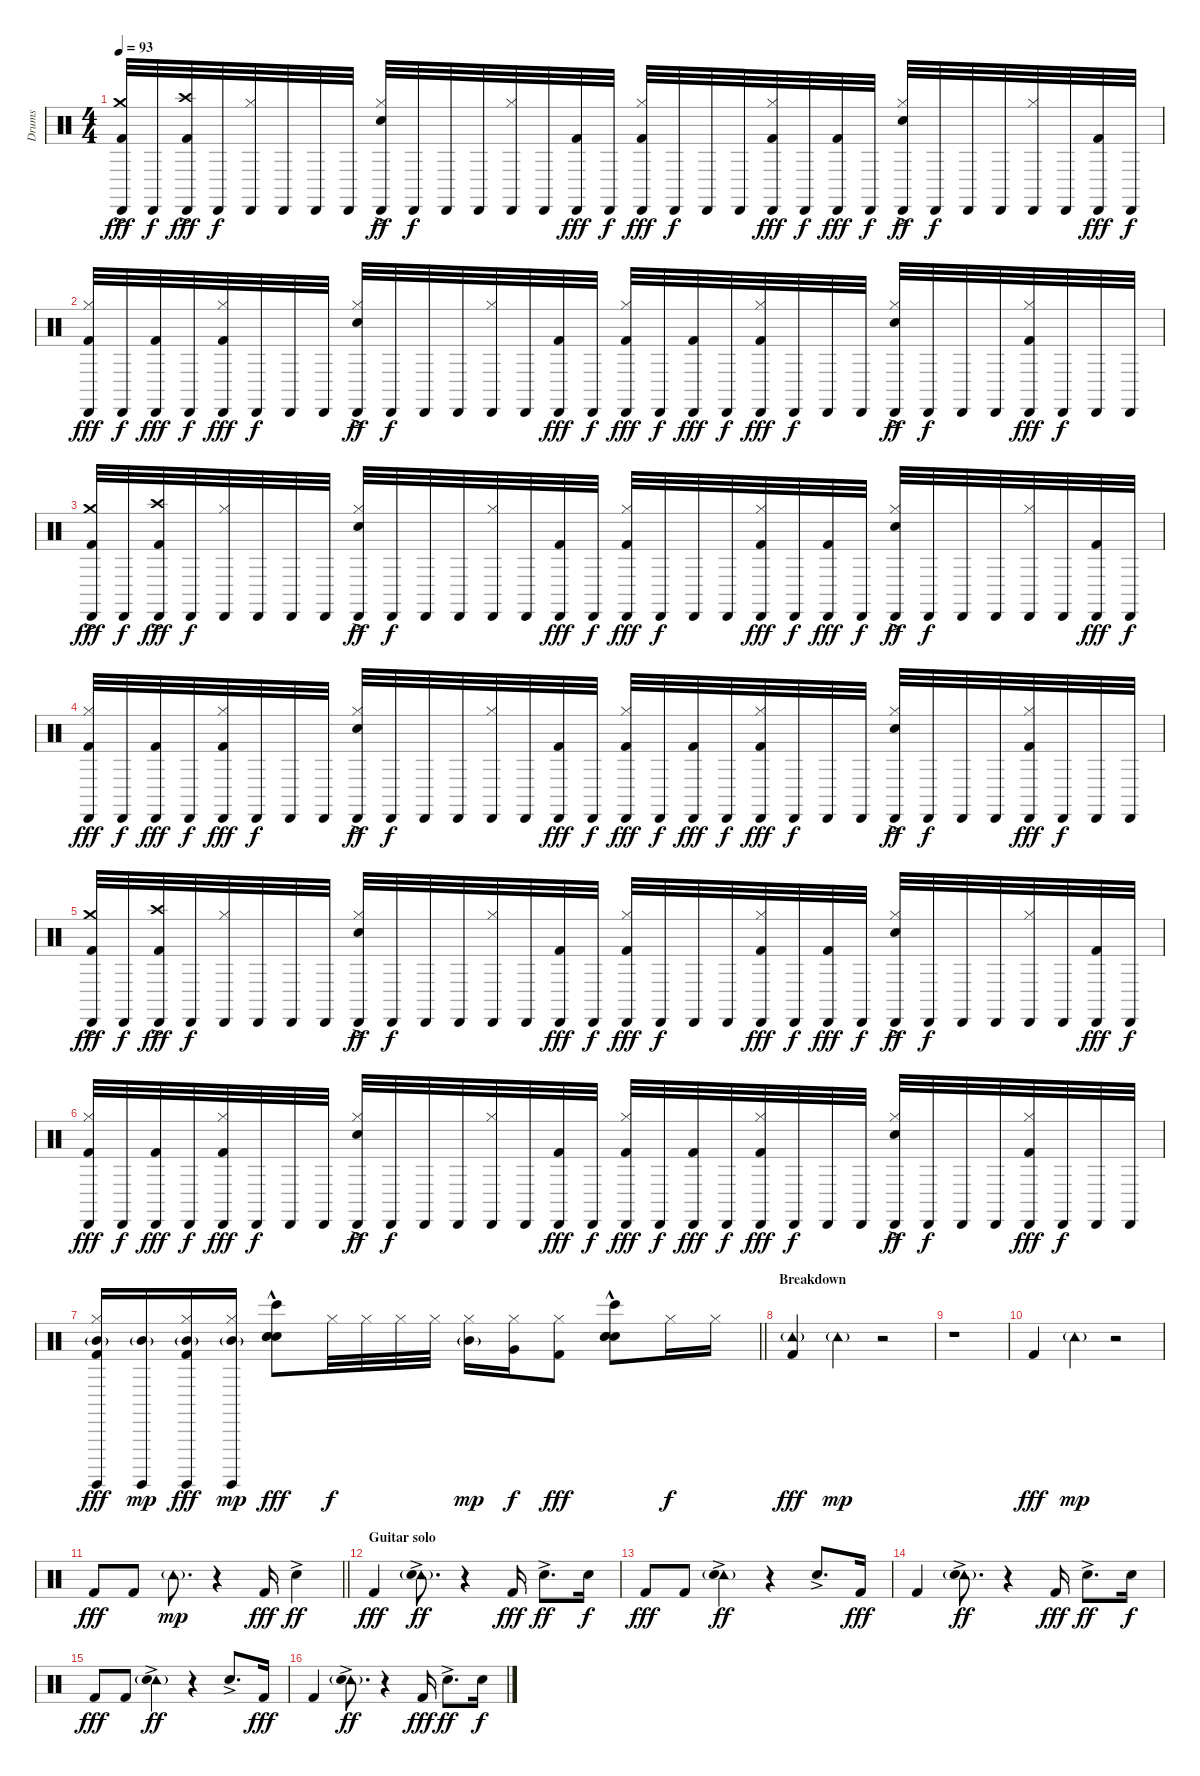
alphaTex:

\track ("Drums" "Drums") {instrument percussion}
\staff {score}
\articulation defaults
\ts (4 4)
\tempo 93
\clef neutral
\ks c
("Crash medium (hit)"{ac} "Cabasa (hit)" "Kick (hit) 2").32{dy fff} "Cabasa (hit)".32{dy f} ("Crash high (hit)"{ac} "Cabasa (hit)" "Kick (hit) 2").32{dy fff} "Cabasa (hit)".32{dy f} ("Cabasa (hit)" "Hi-Hat (closed)").32 "Cabasa (hit)".32 "Cabasa (hit)".32 "Cabasa (hit)".32 ("Cabasa (hit)" "Hi-Hat (closed)" "Electric Snare (hit)"{ac}).32{dy ff} "Cabasa (hit)".32{dy f} "Cabasa (hit)".32 "Cabasa (hit)".32 ("Cabasa (hit)" "Hi-Hat (closed)").32 "Cabasa (hit)".32 ("Cabasa (hit)" "Kick (hit) 2").32{dy fff} "Cabasa (hit)".32{dy f} ("Cabasa (hit)" "Hi-Hat (closed)" "Kick (hit) 2").32{dy fff} "Cabasa (hit)".32{dy f} "Cabasa (hit)".32 "Cabasa (hit)".32 ("Cabasa (hit)" "Hi-Hat (closed)" "Kick (hit) 2").32{dy fff} "Cabasa (hit)".32{dy f} ("Cabasa (hit)" "Kick (hit) 2").32{dy fff} "Cabasa (hit)".32{dy f} ("Cabasa (hit)" "Hi-Hat (closed)" "Electric Snare (hit)"{ac}).32{dy ff} "Cabasa (hit)".32{dy f} "Cabasa (hit)".32 "Cabasa (hit)".32 ("Cabasa (hit)" "Hi-Hat (closed)").32 "Cabasa (hit)".32 ("Cabasa (hit)" "Kick (hit) 2").32{dy fff} "Cabasa (hit)".32{dy f} |
("Cabasa (hit)" "Hi-Hat (closed)" "Kick (hit) 2").32{dy fff} "Cabasa (hit)".32{dy f} ("Cabasa (hit)" "Kick (hit) 2").32{dy fff} "Cabasa (hit)".32{dy f} ("Cabasa (hit)" "Hi-Hat (closed)" "Kick (hit) 2").32{dy fff} "Cabasa (hit)".32{dy f} "Cabasa (hit)".32 "Cabasa (hit)".32 ("Cabasa (hit)" "Hi-Hat (closed)" "Electric Snare (hit)"{ac}).32{dy ff} "Cabasa (hit)".32{dy f} "Cabasa (hit)".32 "Cabasa (hit)".32 ("Cabasa (hit)" "Hi-Hat (closed)").32 "Cabasa (hit)".32 ("Cabasa (hit)" "Kick (hit) 2").32{dy fff} "Cabasa (hit)".32{dy f} ("Cabasa (hit)" "Hi-Hat (closed)" "Kick (hit) 2").32{dy fff} "Cabasa (hit)".32{dy f} ("Cabasa (hit)" "Kick (hit) 2").32{dy fff} "Cabasa (hit)".32{dy f} ("Cabasa (hit)" "Hi-Hat (closed)" "Kick (hit) 2").32{dy fff} "Cabasa (hit)".32{dy f} "Cabasa (hit)".32 "Cabasa (hit)".32 ("Cabasa (hit)" "Hi-Hat (closed)" "Electric Snare (hit)"{ac}).32{dy ff} "Cabasa (hit)".32{dy f} "Cabasa (hit)".32 "Cabasa (hit)".32 ("Cabasa (hit)" "Hi-Hat (closed)" "Kick (hit) 2").32{dy fff} "Cabasa (hit)".32{dy f} "Cabasa (hit)".32 "Cabasa (hit)".32 |
("Crash medium (hit)"{ac} "Cabasa (hit)" "Kick (hit) 2").32{dy fff} "Cabasa (hit)".32{dy f} ("Crash high (hit)"{ac} "Cabasa (hit)" "Kick (hit) 2").32{dy fff} "Cabasa (hit)".32{dy f} ("Cabasa (hit)" "Hi-Hat (closed)").32 "Cabasa (hit)".32 "Cabasa (hit)".32 "Cabasa (hit)".32 ("Cabasa (hit)" "Hi-Hat (closed)" "Electric Snare (hit)"{ac}).32{dy ff} "Cabasa (hit)".32{dy f} "Cabasa (hit)".32 "Cabasa (hit)".32 ("Cabasa (hit)" "Hi-Hat (closed)").32 "Cabasa (hit)".32 ("Cabasa (hit)" "Kick (hit) 2").32{dy fff} "Cabasa (hit)".32{dy f} ("Cabasa (hit)" "Hi-Hat (closed)" "Kick (hit) 2").32{dy fff} "Cabasa (hit)".32{dy f} "Cabasa (hit)".32 "Cabasa (hit)".32 ("Cabasa (hit)" "Hi-Hat (closed)" "Kick (hit) 2").32{dy fff} "Cabasa (hit)".32{dy f} ("Cabasa (hit)" "Kick (hit) 2").32{dy fff} "Cabasa (hit)".32{dy f} ("Cabasa (hit)" "Hi-Hat (closed)" "Electric Snare (hit)"{ac}).32{dy ff} "Cabasa (hit)".32{dy f} "Cabasa (hit)".32 "Cabasa (hit)".32 ("Cabasa (hit)" "Hi-Hat (closed)").32 "Cabasa (hit)".32 ("Cabasa (hit)" "Kick (hit) 2").32{dy fff} "Cabasa (hit)".32{dy f} |
("Cabasa (hit)" "Hi-Hat (closed)" "Kick (hit) 2").32{dy fff} "Cabasa (hit)".32{dy f} ("Cabasa (hit)" "Kick (hit) 2").32{dy fff} "Cabasa (hit)".32{dy f} ("Cabasa (hit)" "Hi-Hat (closed)" "Kick (hit) 2").32{dy fff} "Cabasa (hit)".32{dy f} "Cabasa (hit)".32 "Cabasa (hit)".32 ("Cabasa (hit)" "Hi-Hat (closed)" "Electric Snare (hit)"{ac}).32{dy ff} "Cabasa (hit)".32{dy f} "Cabasa (hit)".32 "Cabasa (hit)".32 ("Cabasa (hit)" "Hi-Hat (closed)").32 "Cabasa (hit)".32 ("Cabasa (hit)" "Kick (hit) 2").32{dy fff} "Cabasa (hit)".32{dy f} ("Cabasa (hit)" "Hi-Hat (closed)" "Kick (hit) 2").32{dy fff} "Cabasa (hit)".32{dy f} ("Cabasa (hit)" "Kick (hit) 2").32{dy fff} "Cabasa (hit)".32{dy f} ("Cabasa (hit)" "Hi-Hat (closed)" "Kick (hit) 2").32{dy fff} "Cabasa (hit)".32{dy f} "Cabasa (hit)".32 "Cabasa (hit)".32 ("Cabasa (hit)" "Hi-Hat (closed)" "Electric Snare (hit)"{ac}).32{dy ff} "Cabasa (hit)".32{dy f} "Cabasa (hit)".32 "Cabasa (hit)".32 ("Cabasa (hit)" "Hi-Hat (closed)" "Kick (hit) 2").32{dy fff} "Cabasa (hit)".32{dy f} "Cabasa (hit)".32 "Cabasa (hit)".32 |
("Crash medium (hit)"{ac} "Cabasa (hit)" "Kick (hit) 2").32{dy fff} "Cabasa (hit)".32{dy f} ("Crash high (hit)"{ac} "Cabasa (hit)" "Kick (hit) 2").32{dy fff} "Cabasa (hit)".32{dy f} ("Cabasa (hit)" "Hi-Hat (closed)").32 "Cabasa (hit)".32 "Cabasa (hit)".32 "Cabasa (hit)".32 ("Cabasa (hit)" "Hi-Hat (closed)" "Electric Snare (hit)"{ac}).32{dy ff} "Cabasa (hit)".32{dy f} "Cabasa (hit)".32 "Cabasa (hit)".32 ("Cabasa (hit)" "Hi-Hat (closed)").32 "Cabasa (hit)".32 ("Cabasa (hit)" "Kick (hit) 2").32{dy fff} "Cabasa (hit)".32{dy f} ("Cabasa (hit)" "Hi-Hat (closed)" "Kick (hit) 2").32{dy fff} "Cabasa (hit)".32{dy f} "Cabasa (hit)".32 "Cabasa (hit)".32 ("Cabasa (hit)" "Hi-Hat (closed)" "Kick (hit) 2").32{dy fff} "Cabasa (hit)".32{dy f} ("Cabasa (hit)" "Kick (hit) 2").32{dy fff} "Cabasa (hit)".32{dy f} ("Cabasa (hit)" "Hi-Hat (closed)" "Electric Snare (hit)"{ac}).32{dy ff} "Cabasa (hit)".32{dy f} "Cabasa (hit)".32 "Cabasa (hit)".32 ("Cabasa (hit)" "Hi-Hat (closed)").32 "Cabasa (hit)".32 ("Cabasa (hit)" "Kick (hit) 2").32{dy fff} "Cabasa (hit)".32{dy f} |
("Cabasa (hit)" "Hi-Hat (closed)" "Kick (hit) 2").32{dy fff} "Cabasa (hit)".32{dy f} ("Cabasa (hit)" "Kick (hit) 2").32{dy fff} "Cabasa (hit)".32{dy f} ("Cabasa (hit)" "Hi-Hat (closed)" "Kick (hit) 2").32{dy fff} "Cabasa (hit)".32{dy f} "Cabasa (hit)".32 "Cabasa (hit)".32 ("Cabasa (hit)" "Hi-Hat (closed)" "Electric Snare (hit)"{ac}).32{dy ff} "Cabasa (hit)".32{dy f} "Cabasa (hit)".32 "Cabasa (hit)".32 ("Cabasa (hit)" "Hi-Hat (closed)").32 "Cabasa (hit)".32 ("Cabasa (hit)" "Kick (hit) 2").32{dy fff} "Cabasa (hit)".32{dy f} ("Cabasa (hit)" "Hi-Hat (closed)" "Kick (hit) 2").32{dy fff} "Cabasa (hit)".32{dy f} ("Cabasa (hit)" "Kick (hit) 2").32{dy fff} "Cabasa (hit)".32{dy f} ("Cabasa (hit)" "Hi-Hat (closed)" "Kick (hit) 2").32{dy fff} "Cabasa (hit)".32{dy f} "Cabasa (hit)".32 "Cabasa (hit)".32 ("Cabasa (hit)" "Hi-Hat (closed)" "Electric Snare (hit)"{ac}).32{dy ff} "Cabasa (hit)".32{dy f} "Cabasa (hit)".32 "Cabasa (hit)".32 ("Cabasa (hit)" "Hi-Hat (closed)" "Kick (hit) 2").32{dy fff} "Cabasa (hit)".32{dy f} "Cabasa (hit)".32 "Cabasa (hit)".32 |
\barLineRight lightlight
("Hi-Hat (closed)" "Mid Tom (hit)"{g} "Surdo (hit)" "Kick (hit) 2").16{dy fff} ("Mid Tom (hit)"{g} "Surdo (hit)").16{dy mp} ("Hi-Hat (closed)" "Mid Tom (hit)"{g} "Surdo (hit)" "Kick (hit) 2").16{dy fff} ("Hi-Hat (closed)" "Mid Tom (hit)"{g} "Surdo (hit)").16{dy mp} ("Hand Clap (hit)"{hac} "Bongo High (hit)"{hac} "Snare (hit) 2"{hac} "Electric Snare (hit)"{hac}).8{dy fff volume 16} "Hi-Hat (closed)".32{dy f volume 10} "Hi-Hat (closed)".32 "Hi-Hat (closed)".32 "Hi-Hat (closed)".32 ("Hi-Hat (closed)" "Mid Tom (hit)"{g}).16{dy mp} ("Hi-Hat (closed)" "Very Low Tom (hit)").16{dy f} ("Hi-Hat (closed)" "Kick (hit) 2").8{dy fff} ("Hand Clap (hit)"{hac} "Bongo High (hit)"{hac} "Snare (hit) 2"{hac} "Electric Snare (hit)"{hac}).8 "Hi-Hat (closed)".16{dy f} "Hi-Hat (closed)".16 |
\section ("" "Breakdown")
("Tambourine (hit)"{g} "Kick (hit) 2").4{dy fff} "Tambourine (hit)"{g}.4{dy mp} r.2 |
r.1 |
"Kick (hit) 2".4{dy fff} "Tambourine (hit)"{g}.4{dy mp} r.2 |
\barLineRight lightlight "Kick (hit) 2".8{dy fff} "Kick (hit) 2".8 "Tambourine (hit)"{g}.8{d dy mp}
r.4 "Kick (hit) 2".16{dy fff} "Electric Snare (hit)"{ac}.4{dy ff} |
\section ("" "Guitar solo")
"Kick (hit) 2".4{dy fff} ("Tambourine (hit)"{g} "Electric Snare (hit)"{ac}).8{d dy ff} r.4 "Kick (hit) 2".16{dy fff} "Electric Snare (hit)"{ac}.8{d dy ff} "Electric Snare (hit)".16{dy f} |
"Kick (hit) 2".8{dy fff} "Kick (hit) 2".8 ("Tambourine (hit)"{g} "Electric Snare (hit)"{ac}).4{dy ff} r.4 "Electric Snare (hit)"{ac}.8{d} "Kick (hit) 2".16{dy fff} |
"Kick (hit) 2".4 ("Tambourine (hit)"{g} "Electric Snare (hit)"{ac}).8{d dy ff} r.4 "Kick (hit) 2".16{dy fff} "Electric Snare (hit)"{ac}.8{d dy ff} "Electric Snare (hit)".16{dy f} |
"Kick (hit) 2".8{dy fff} "Kick (hit) 2".8 ("Tambourine (hit)"{g} "Electric Snare (hit)"{ac}).4{dy ff} r.4 "Electric Snare (hit)"{ac}.8{d} "Kick (hit) 2".16{dy fff} |
"Kick (hit) 2".4 ("Tambourine (hit)"{g} "Electric Snare (hit)"{ac}).8{d dy ff} r.4 "Kick (hit) 2".16{dy fff} "Electric Snare (hit)"{ac}.8{d dy ff} "Electric Snare (hit)".16{dy f}
